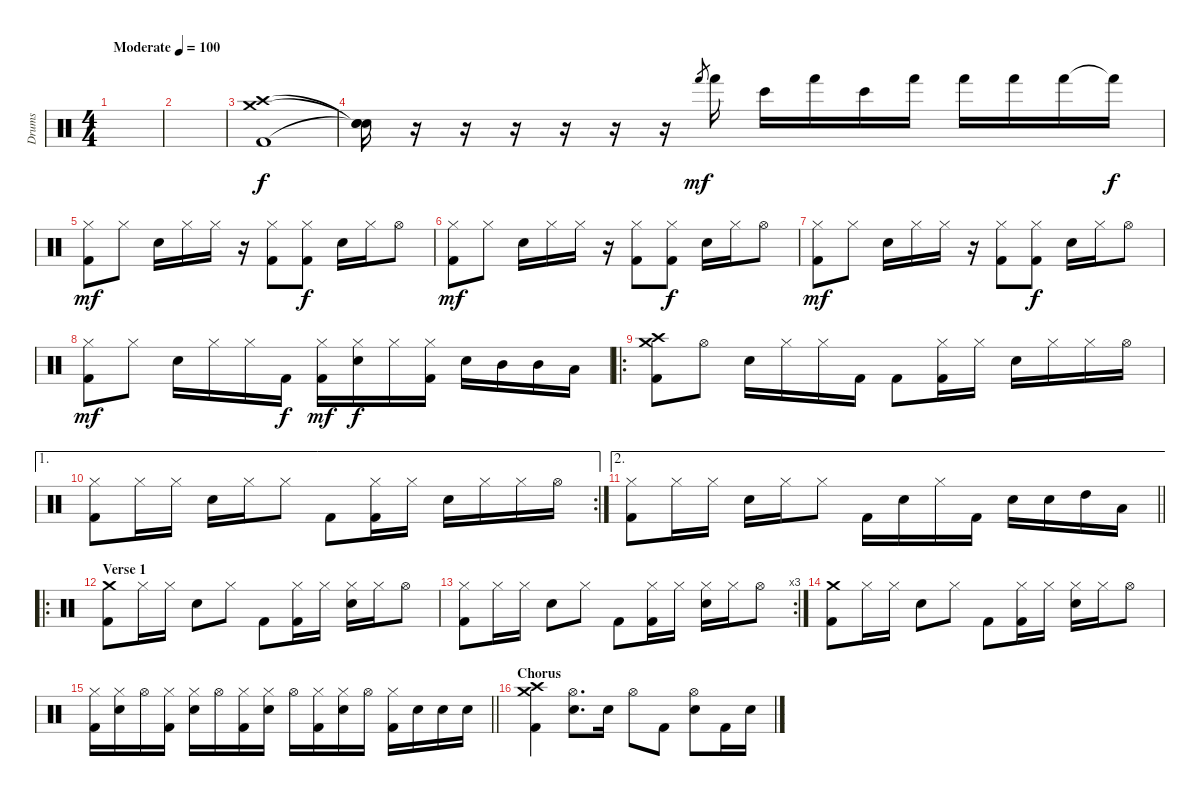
\track ("Drums" "Drums") {instrument percussion}
\staff {score}
\articulation defaults
\ts (4 4)
\tempo (100 "Moderate")
\clef neutral
\ks c
|
|
("Crash high (hit)" "Crash medium (hit)" "Kick (hit) 2").1 |
("Snare (hit)"{t} "Snare (hit)"{t} "Snare (hit)"{t}).16{dy f} r.16 r.16 r.16 r.16 r.16 r.16 "Hand (hit)".8{gr dy mf} "Hand (hit)".16 "Bongo High (hit)".16 "Hand (hit)".16 "Bongo High (hit)".16 "Hand (hit)".16 "Hand (hit)".16 "Hand (hit)".16 "Hand (hit)".16 "Hand (hit)"{t}.16{dy f} |
("Hi-Hat (closed)" "Kick (hit) 2").8{dy mf} "Hi-Hat (closed)".8 "Electric Snare (hit)".16 "Hi-Hat (closed)".16 "Hi-Hat (closed)".16 r.16 ("Hi-Hat (closed)" "Kick (hit) 2").8 ("Hi-Hat (closed)" "Kick (hit) 2").8{dy f} "Electric Snare (hit)".16 "Hi-Hat (closed)".16 "Hi-Hat (open)".8 |
("Hi-Hat (closed)" "Kick (hit) 2").8{dy mf} "Hi-Hat (closed)".8 "Electric Snare (hit)".16 "Hi-Hat (closed)".16 "Hi-Hat (closed)".16 r.16 ("Hi-Hat (closed)" "Kick (hit) 2").8 ("Hi-Hat (closed)" "Kick (hit) 2").8{dy f} "Electric Snare (hit)".16 "Hi-Hat (closed)".16 "Hi-Hat (open)".8 |
("Hi-Hat (closed)" "Kick (hit) 2").8{dy mf} "Hi-Hat (closed)".8 "Electric Snare (hit)".16 "Hi-Hat (closed)".16 "Hi-Hat (closed)".16 r.16 ("Hi-Hat (closed)" "Kick (hit) 2").8 ("Hi-Hat (closed)" "Kick (hit) 2").8{dy f} "Electric Snare (hit)".16 "Hi-Hat (closed)".16 "Hi-Hat (open)".8 |
("Hi-Hat (closed)" "Kick (hit) 2").8{dy mf} "Hi-Hat (closed)".8 "Electric Snare (hit)".16 "Hi-Hat (closed)".16 "Hi-Hat (closed)".16 "Kick (hit) 2".16{dy f} ("Hi-Hat (closed)" "Kick (hit) 2").16{dy mf} ("Hi-Hat (closed)" "Electric Snare (hit)").16{dy f} "Hi-Hat (closed)".16 ("Hi-Hat (closed)" "Kick (hit) 2").16 "Electric Snare (hit)".16 "Mid Tom (hit)".16 "Mid Tom (hit)".16 "Low Tom (hit)".16 |
\ro
("Crash high (hit)" "Crash medium (hit)" "Kick (hit) 2").8 "Hi-Hat (open)".8 "Electric Snare (hit)".16 "Hi-Hat (closed)".16 "Hi-Hat (closed)".16 "Kick (hit) 2".16 "Kick (hit) 2".8 ("Hi-Hat (closed)" "Kick (hit) 2").16 "Hi-Hat (closed)".16 "Electric Snare (hit)".16 "Hi-Hat (closed)".16 "Hi-Hat (closed)".16 "Hi-Hat (open)".16 |
\ae 1
\rc 2
("Hi-Hat (closed)" "Kick (hit) 2").8 "Hi-Hat (closed)".16 "Hi-Hat (closed)".16 "Electric Snare (hit)".16 "Hi-Hat (closed)".16 "Hi-Hat (closed)".8 "Kick (hit) 2".8 ("Hi-Hat (closed)" "Kick (hit) 2").16 "Hi-Hat (closed)".16 "Electric Snare (hit)".16 "Hi-Hat (closed)".16 "Hi-Hat (closed)".16 "Hi-Hat (open)".16 |
\ae 2
\barLineRight lightlight
("Hi-Hat (closed)" "Kick (hit) 2").8 "Hi-Hat (closed)".16 "Hi-Hat (closed)".16 "Electric Snare (hit)".16 "Hi-Hat (closed)".16 "Hi-Hat (closed)".8 "Kick (hit) 2".16 "Electric Snare (hit)".16 "Hi-Hat (closed)".16 "Kick (hit) 2".16 "Electric Snare (hit)".16 "Electric Snare (hit)".16 "High Tom (hit)".16 "Low Tom (hit)".16 |
\ro
\section ("" "Verse 1")
("Crash medium (hit)" "Kick (hit) 2").8 "Hi-Hat (closed)".16 "Hi-Hat (closed)".16 "Electric Snare (hit)".8 "Hi-Hat (closed)".8 "Kick (hit) 2".8 ("Hi-Hat (closed)" "Kick (hit) 2").16 "Hi-Hat (closed)".16 ("Hi-Hat (closed)" "Electric Snare (hit)").16 "Hi-Hat (closed)".16 "Hi-Hat (open)".8 |
\rc 3
("Hi-Hat (closed)" "Kick (hit) 2").8 "Hi-Hat (closed)".16 "Hi-Hat (closed)".16 "Electric Snare (hit)".8 "Hi-Hat (closed)".8 "Kick (hit) 2".8 ("Hi-Hat (closed)" "Kick (hit) 2").16 "Hi-Hat (closed)".16 ("Hi-Hat (closed)" "Electric Snare (hit)").16 "Hi-Hat (closed)".16 "Hi-Hat (open)".8 |
("Crash medium (hit)" "Kick (hit) 2").8 "Hi-Hat (closed)".16 "Hi-Hat (closed)".16 "Electric Snare (hit)".8 "Hi-Hat (closed)".8 "Kick (hit) 2".8 ("Hi-Hat (closed)" "Kick (hit) 2").16 "Hi-Hat (closed)".16 ("Hi-Hat (closed)" "Electric Snare (hit)").16 "Hi-Hat (closed)".16 "Hi-Hat (open)".8 |
\barLineRight lightlight
("Hi-Hat (closed)" "Kick (hit) 2").16 ("Hi-Hat (closed)" "Electric Snare (hit)").16 "Hi-Hat (open)".16 ("Hi-Hat (closed)" "Kick (hit) 2").16 ("Hi-Hat (closed)" "Electric Snare (hit)").16 "Hi-Hat (open)".16 ("Hi-Hat (closed)" "Kick (hit) 2").16 ("Hi-Hat (closed)" "Electric Snare (hit)").16 "Hi-Hat (open)".16 ("Hi-Hat (closed)" "Kick (hit) 2").16 ("Hi-Hat (closed)" "Electric Snare (hit)").16 "Hi-Hat (open)".16 ("Hi-Hat (closed)" "Kick (hit) 2").16 "Electric Snare (hit)".16 "Electric Snare (hit)".16 "Electric Snare (hit)".16 |
\section ("" "Chorus")
("Crash high (hit)" "Crash medium (hit)" "Kick (hit) 2").4 ("Hi-Hat (open)" "Electric Snare (hit)").8{d} "Electric Snare (hit)".16 "Hi-Hat (open)".8 "Kick (hit) 2".8 ("Hi-Hat (open)" "Electric Snare (hit)").8 "Kick (hit) 2".16 "Electric Snare (hit)".16
